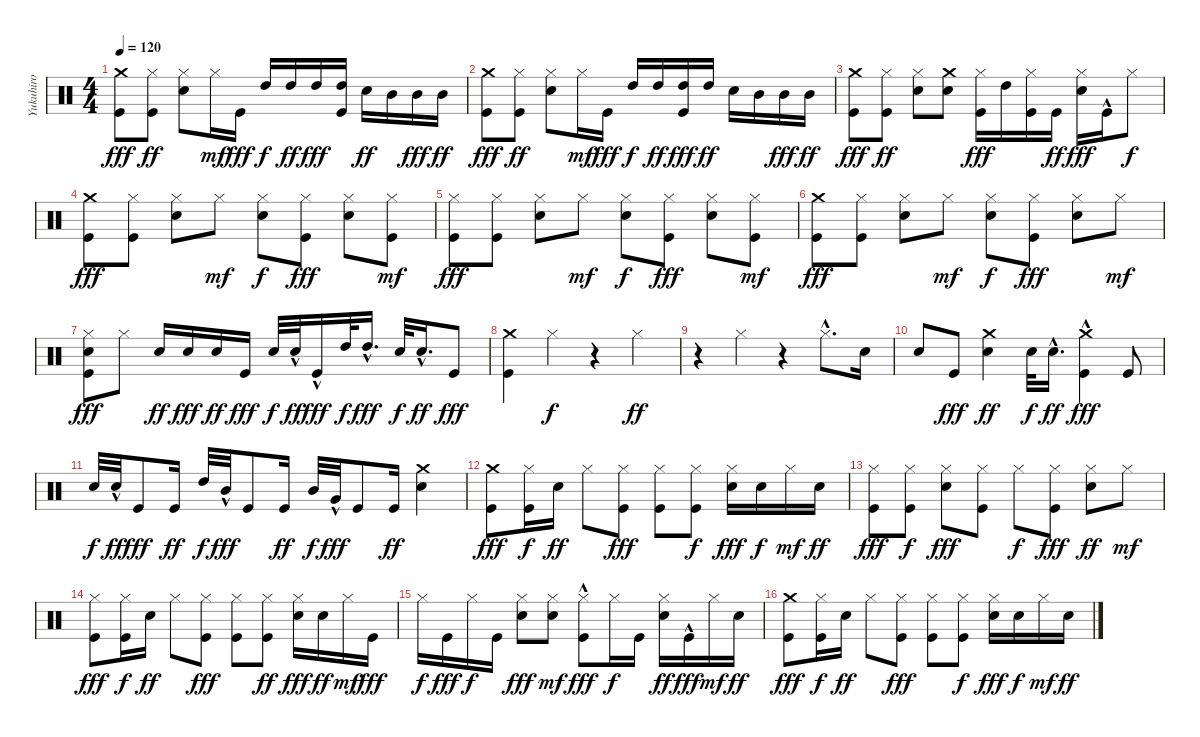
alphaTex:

\track ("Yukuhiro" "Yukuhiro") {instrument percussion}
\staff {score}
\articulation defaults
\ts (4 4)
\tempo 120
\clef neutral
\ks c
("Crash medium (hit)" "Kick (hit)").8{dy fff} ("Kick (hit)" "Hi-Hat (closed)").8{dy ff} ("Electric Snare (hit)" "Hi-Hat (closed)").8 "Hi-Hat (closed)".16{dy mf} "Kick (hit)".16{dy fff} "High Tom (hit)".16{dy f} "High Tom (hit)".16{dy ff} "High Tom (hit)".16{dy fff} ("High Tom (hit)" "Kick (hit)").16 "Electric Snare (hit)".16{dy ff} "Mid Tom (hit)".16 "Mid Tom (hit)".16{dy fff} "Mid Tom (hit)".16{dy ff} |
("Crash medium (hit)" "Kick (hit)").8{dy fff} ("Kick (hit)" "Hi-Hat (closed)").8{dy ff} ("Electric Snare (hit)" "Hi-Hat (closed)").8 "Hi-Hat (closed)".16{dy mf} "Kick (hit)".16{dy fff} "High Tom (hit)".16{dy f} "High Tom (hit)".16{dy ff} ("Kick (hit)" "High Tom (hit)").16{dy fff} "High Tom (hit)".16{dy ff} "Electric Snare (hit)".16 "Mid Tom (hit)".16 "Mid Tom (hit)".16{dy fff} "Mid Tom (hit)".16{dy ff} |
("Crash medium (hit)" "Kick (hit)").8{dy fff} ("Kick (hit)" "Hi-Hat (closed)").8{dy ff} ("Electric Snare (hit)" "Hi-Hat (closed)").8 ("Crash medium (hit)" "Electric Snare (hit)").8 ("Kick (hit)" "Hi-Hat (closed)").16{dy fff} "High Tom (hit)".16 ("Kick (hit)" "Hi-Hat (closed)").16 "Kick (hit)".16{dy ff} ("Electric Snare (hit)" "Hi-Hat (closed)").16{dy fff} "Kick (hit)"{hac}.16 "Hi-Hat (closed)".8{dy f} |
("Kick (hit)" "Crash medium (hit)").8{dy fff} ("Kick (hit)" "Hi-Hat (closed)").8 ("Electric Snare (hit)" "Hi-Hat (closed)").8 "Hi-Hat (closed)".8{dy mf} ("Electric Snare (hit)" "Hi-Hat (closed)").8{dy f} ("Kick (hit)" "Hi-Hat (closed)").8{dy fff} ("Electric Snare (hit)" "Hi-Hat (closed)").8 ("Kick (hit)" "Hi-Hat (closed)").8{dy mf} |
("Kick (hit)" "Hi-Hat (closed)").8{dy fff} ("Kick (hit)" "Hi-Hat (closed)").8 ("Electric Snare (hit)" "Hi-Hat (closed)").8 "Hi-Hat (closed)".8{dy mf} ("Electric Snare (hit)" "Hi-Hat (closed)").8{dy f} ("Kick (hit)" "Hi-Hat (closed)").8{dy fff} ("Electric Snare (hit)" "Hi-Hat (closed)").8 ("Kick (hit)" "Hi-Hat (closed)").8{dy mf} |
("Kick (hit)" "Crash medium (hit)").8{dy fff} ("Kick (hit)" "Hi-Hat (closed)").8 ("Electric Snare (hit)" "Hi-Hat (closed)").8 "Hi-Hat (closed)".8{dy mf} ("Electric Snare (hit)" "Hi-Hat (closed)").8{dy f} ("Kick (hit)" "Hi-Hat (closed)").8{dy fff} ("Electric Snare (hit)" "Hi-Hat (closed)").8 "Hi-Hat (closed)".8{dy mf} |
("Kick (hit)" "Electric Snare (hit)" "Hi-Hat (closed)").8{dy fff} "Hi-Hat (closed)".8 "Electric Snare (hit)".16{dy ff} "Electric Snare (hit)".16{dy fff} "Electric Snare (hit)".16{dy ff} "Kick (hit)".16{dy fff} "Electric Snare (hit)".32{dy f} "Electric Snare (hit)"{hac}.32{dy ff} "Kick (hit)"{hac}.16{dy fff} "High Tom (hit)".32{dy f} "High Tom (hit)"{hac}.16{d dy fff} "Electric Snare (hit)".32{dy f} "Electric Snare (hit)"{hac}.16{d dy ff} "Kick (hit)".8{dy fff} |
("Crash medium (hit)" "Kick (hit)").4 "Hi-Hat (closed)".4{dy f} r.4 "Hi-Hat (closed)".4{dy ff} |
r.4 "Hi-Hat (closed)".4 r.4 "Hi-Hat (closed)"{hac}.8{d} "Electric Snare (hit)".16 |
"Electric Snare (hit)".8 "Kick (hit)".8{dy fff} ("Crash medium (hit)" "Electric Snare (hit)").4{dy ff} "Electric Snare (hit)".32{dy f} "Electric Snare (hit)"{hac}.16{d dy ff} ("Kick (hit)" "Crash medium (hit)"{hac}).4{dy fff} "Kick (hit)".8 |
"Electric Snare (hit)".32{dy f} "Electric Snare (hit)"{hac}.32{dy ff} "Kick (hit)".8{dy fff} "Kick (hit)".16{dy ff} "High Tom (hit)".32{dy f} "Mid Tom (hit)"{hac}.32{dy fff} "Kick (hit)".8 "Kick (hit)".16{dy ff} "Mid Tom (hit)".32{dy f} "Very Low Tom (hit)"{hac}.32{dy fff} "Kick (hit)".8 "Kick (hit)".16{dy ff} ("Crash medium (hit)" "Electric Snare (hit)").4 |
("Crash medium (hit)" "Kick (hit)").8{dy fff} ("Hi-Hat (closed)" "Kick (hit)").16{dy f} "Electric Snare (hit)".16{dy ff} "Hi-Hat (closed)".8 ("Kick (hit)" "Hi-Hat (closed)").8{dy fff} ("Kick (hit)" "Hi-Hat (closed)").8 ("Hi-Hat (closed)" "Kick (hit)").8{dy f} ("Electric Snare (hit)" "Hi-Hat (closed)").16{dy fff} "Electric Snare (hit)".16{dy f} "Hi-Hat (closed)".16{dy mf} "Electric Snare (hit)".16{dy ff} |
("Hi-Hat (closed)" "Kick (hit)").8{dy fff} ("Hi-Hat (closed)" "Kick (hit)").8{dy f} ("Electric Snare (hit)" "Hi-Hat (closed)").8{dy fff} ("Hi-Hat (closed)" "Kick (hit)").8 "Hi-Hat (closed)".8{dy f} ("Hi-Hat (closed)" "Kick (hit)").8{dy fff} ("Hi-Hat (closed)" "Electric Snare (hit)").8{dy ff} "Hi-Hat (closed)".8{dy mf} |
("Hi-Hat (closed)" "Kick (hit)").8{dy fff} ("Kick (hit)" "Hi-Hat (closed)").16{dy f} "Electric Snare (hit)".16{dy ff} "Hi-Hat (closed)".8 ("Kick (hit)" "Hi-Hat (closed)").8{dy fff} ("Kick (hit)" "Hi-Hat (closed)").8 ("Kick (hit)" "Hi-Hat (closed)").8{dy ff} ("Electric Snare (hit)" "Hi-Hat (closed)").16{dy fff} "Electric Snare (hit)".16{dy ff} "Hi-Hat (closed)".16{dy mf} "Kick (hit)".16{dy fff} |
"Hi-Hat (closed)".16{dy f} "Kick (hit)".16{dy fff} "Hi-Hat (closed)".16{dy f} "Kick (hit)".16 ("Electric Snare (hit)" "Hi-Hat (closed)").8{dy fff} ("Electric Snare (hit)" "Hi-Hat (closed)").8{dy mf} ("Kick (hit)"{hac} "Hi-Hat (closed)").8{dy fff} "Hi-Hat (closed)".16{dy f} "Kick (hit)".16 ("Hi-Hat (closed)" "Electric Snare (hit)").16{dy ff} "Kick (hit)"{hac}.16{dy fff} "Hi-Hat (closed)".16{dy mf} "Electric Snare (hit)".16{dy ff} |
("Crash medium (hit)" "Kick (hit)").8{dy fff} ("Hi-Hat (closed)" "Kick (hit)").16{dy f} "Electric Snare (hit)".16{dy ff} "Hi-Hat (closed)".8 ("Kick (hit)" "Hi-Hat (closed)").8{dy fff} ("Kick (hit)" "Hi-Hat (closed)").8 ("Hi-Hat (closed)" "Kick (hit)").8{dy f} ("Electric Snare (hit)" "Hi-Hat (closed)").16{dy fff} "Electric Snare (hit)".16{dy f} "Hi-Hat (closed)".16{dy mf} "Electric Snare (hit)".16{dy ff}
